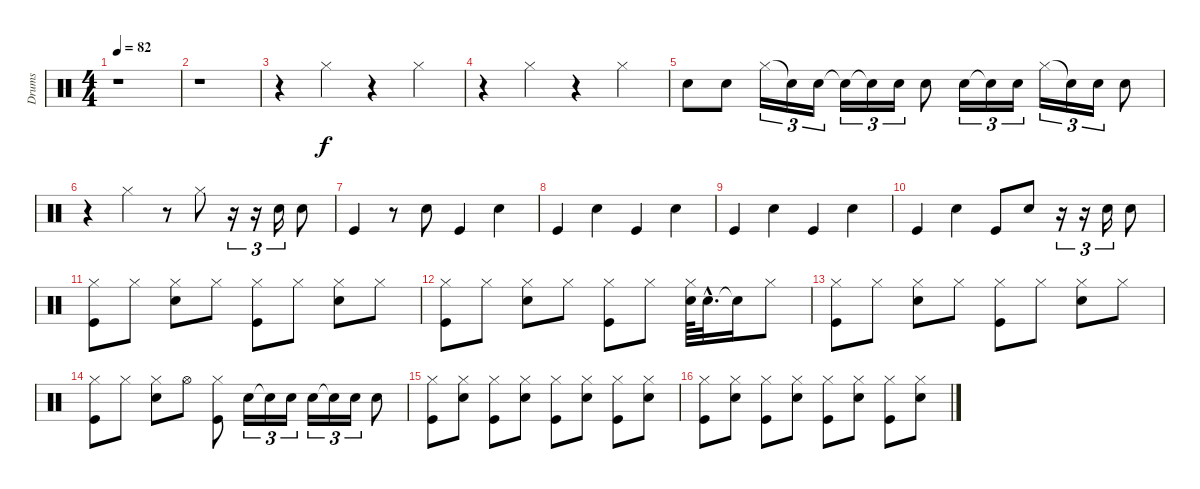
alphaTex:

\track ("Drums" "Drums") {instrument percussion}
\staff {score}
\articulation defaults
\ts (4 4)
\tempo 82
\clef neutral
\ks c
r.1{dy f} |
r.1 |
r.4 "Hi-Hat (closed)".4 r.4 "Hi-Hat (closed)".4 |
r.4 "Hi-Hat (closed)".4 r.4 "Hi-Hat (closed)".4 |
"Snare (hit) 2".8 "Snare (hit) 2".8 "Hi-Hat (closed)".16{tu (3 2)} "Snare (hit)"{t}.16{tu (3 2)} "Snare (hit) 2".16{tu (3 2)} "Snare (hit)"{t}.16{tu (3 2)} "Snare (hit)"{t}.16{tu (3 2)} "Snare (hit) 2".16{tu (3 2)} "Snare (hit) 2".8 "Snare (hit) 2".16{tu (3 2)} "Snare (hit)"{t}.16{tu (3 2)} "Snare (hit) 2".16{tu (3 2)} "Hi-Hat (closed)".16{tu (3 2)} "Snare (hit)"{t}.16{tu (3 2)} "Snare (hit) 2".16{tu (3 2)} "Snare (hit) 2".8 |
r.4 "Hi-Hat (closed)".4 r.8 "Hi-Hat (closed)".8 r.16{tu (3 2)} r.16{tu (3 2)} "Snare (hit) 2".16{tu (3 2)} "Snare (hit) 2".8 |
"Kick (hit)".4 r.8 "Snare (hit) 2".8 "Kick (hit)".4 "Snare (hit) 2".4 |
"Kick (hit)".4 "Snare (hit) 2".4 "Kick (hit)".4 "Snare (hit) 2".4 |
"Kick (hit)".4 "Snare (hit) 2".4 "Kick (hit)".4 "Snare (hit) 2".4 |
"Kick (hit)".4 "Snare (hit) 2".4 "Kick (hit)".8 "Snare (hit) 2".8 r.16{tu (3 2)} r.16{tu (3 2)} "Snare (hit) 2".16{tu (3 2)} "Snare (hit) 2".8 |
("Hi-Hat (closed)" "Kick (hit)").8 "Hi-Hat (closed)".8 ("Hi-Hat (closed)" "Snare (hit) 2").8 "Hi-Hat (closed)".8 ("Hi-Hat (closed)" "Kick (hit)").8 "Hi-Hat (closed)".8 ("Hi-Hat (closed)" "Snare (hit) 2").8 "Hi-Hat (closed)".8 |
("Hi-Hat (closed)" "Kick (hit)").8 "Hi-Hat (closed)".8 ("Hi-Hat (closed)" "Snare (hit) 2").8 "Hi-Hat (closed)".8 ("Hi-Hat (closed)" "Kick (hit)").8 "Hi-Hat (closed)".8 ("Hi-Hat (closed)" "Snare (hit) 2").64 "Snare (hit) 2"{hac}.32{d} "Snare (hit)"{t}.16 "Hi-Hat (closed)".8 |
("Hi-Hat (closed)" "Kick (hit)").8 "Hi-Hat (closed)".8 ("Hi-Hat (closed)" "Snare (hit) 2").8 "Hi-Hat (closed)".8 ("Hi-Hat (closed)" "Kick (hit)").8 "Hi-Hat (closed)".8 ("Hi-Hat (closed)" "Snare (hit) 2").8 "Hi-Hat (closed)".8 |
("Hi-Hat (closed)" "Kick (hit)").8 "Hi-Hat (closed)".8 ("Hi-Hat (closed)" "Snare (hit) 2").8 "Hi-Hat (open)".8 ("Hi-Hat (closed)" "Kick (hit)").8 "Snare (hit) 2".16{tu (3 2)} "Snare (hit)"{t}.16{tu (3 2)} "Snare (hit) 2".16{tu (3 2)} "Snare (hit) 2".16{tu (3 2)} "Snare (hit)"{t}.16{tu (3 2)} "Snare (hit) 2".16{tu (3 2)} "Snare (hit) 2".8 |
("Hi-Hat (closed)" "Kick (hit)").8 ("Hi-Hat (closed)" "Snare (hit) 2").8 ("Hi-Hat (closed)" "Kick (hit)").8 ("Hi-Hat (closed)" "Snare (hit) 2").8 ("Hi-Hat (closed)" "Kick (hit)").8 ("Hi-Hat (closed)" "Snare (hit) 2").8 ("Hi-Hat (closed)" "Kick (hit)").8 ("Hi-Hat (closed)" "Snare (hit) 2").8 |
("Hi-Hat (closed)" "Kick (hit)").8 ("Hi-Hat (closed)" "Snare (hit) 2").8 ("Hi-Hat (closed)" "Kick (hit)").8 ("Hi-Hat (closed)" "Snare (hit) 2").8 ("Hi-Hat (closed)" "Kick (hit)").8 ("Hi-Hat (closed)" "Snare (hit) 2").8 ("Hi-Hat (closed)" "Kick (hit)").8 ("Hi-Hat (closed)" "Snare (hit) 2").8
